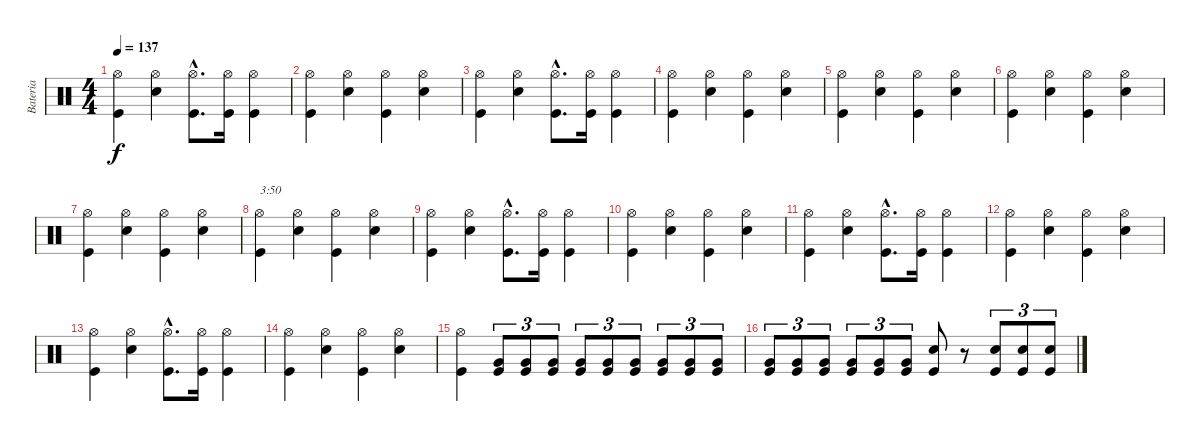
\track ("Bateria" "Bateria") {instrument percussion}
\staff {score}
\articulation defaults
\ts (4 4)
\tempo 137
\clef neutral
\ks c
("Kick (hit)" "Hi-Hat (open)").4{dy f} ("Snare (hit) 2" "Hi-Hat (open)").4 ("Kick (hit)"{hac} "Hi-Hat (open)"{hac}).8{d} ("Kick (hit)" "Hi-Hat (open)").16 ("Kick (hit)" "Hi-Hat (open)").4 |
("Kick (hit)" "Hi-Hat (open)").4 ("Snare (hit) 2" "Hi-Hat (open)").4 ("Kick (hit)" "Hi-Hat (open)").4 ("Snare (hit) 2" "Hi-Hat (open)").4 |
("Kick (hit)" "Hi-Hat (open)").4 ("Snare (hit) 2" "Hi-Hat (open)").4 ("Kick (hit)"{hac} "Hi-Hat (open)"{hac}).8{d} ("Kick (hit)" "Hi-Hat (open)").16 ("Kick (hit)" "Hi-Hat (open)").4 |
("Kick (hit)" "Hi-Hat (open)").4 ("Snare (hit) 2" "Hi-Hat (open)").4 ("Kick (hit)" "Hi-Hat (open)").4 ("Snare (hit) 2" "Hi-Hat (open)").4 |
("Kick (hit)" "Hi-Hat (open)").4 ("Snare (hit) 2" "Hi-Hat (open)").4 ("Kick (hit)" "Hi-Hat (open)").4 ("Snare (hit) 2" "Hi-Hat (open)").4 |
("Kick (hit)" "Hi-Hat (open)").4 ("Snare (hit) 2" "Hi-Hat (open)").4 ("Kick (hit)" "Hi-Hat (open)").4 ("Snare (hit) 2" "Hi-Hat (open)").4 |
("Kick (hit)" "Hi-Hat (open)").4 ("Snare (hit) 2" "Hi-Hat (open)").4 ("Kick (hit)" "Hi-Hat (open)").4 ("Snare (hit) 2" "Hi-Hat (open)").4 |
("Kick (hit)" "Hi-Hat (open)").4{txt "3:50"} ("Snare (hit) 2" "Hi-Hat (open)").4 ("Kick (hit)" "Hi-Hat (open)").4 ("Snare (hit) 2" "Hi-Hat (open)").4 |
("Kick (hit)" "Hi-Hat (open)").4 ("Snare (hit) 2" "Hi-Hat (open)").4 ("Kick (hit)"{hac} "Hi-Hat (open)"{hac}).8{d} ("Kick (hit)" "Hi-Hat (open)").16 ("Kick (hit)" "Hi-Hat (open)").4 |
("Kick (hit)" "Hi-Hat (open)").4 ("Snare (hit) 2" "Hi-Hat (open)").4 ("Kick (hit)" "Hi-Hat (open)").4 ("Snare (hit) 2" "Hi-Hat (open)").4 |
("Kick (hit)" "Hi-Hat (open)").4 ("Snare (hit) 2" "Hi-Hat (open)").4 ("Kick (hit)"{hac} "Hi-Hat (open)"{hac}).8{d} ("Kick (hit)" "Hi-Hat (open)").16 ("Kick (hit)" "Hi-Hat (open)").4 |
("Kick (hit)" "Hi-Hat (open)").4 ("Snare (hit) 2" "Hi-Hat (open)").4 ("Kick (hit)" "Hi-Hat (open)").4 ("Snare (hit) 2" "Hi-Hat (open)").4 |
("Kick (hit)" "Hi-Hat (open)").4 ("Snare (hit) 2" "Hi-Hat (open)").4 ("Kick (hit)"{hac} "Hi-Hat (open)"{hac}).8{d} ("Kick (hit)" "Hi-Hat (open)").16 ("Kick (hit)" "Hi-Hat (open)").4 |
("Kick (hit)" "Hi-Hat (open)").4 ("Snare (hit) 2" "Hi-Hat (open)").4 ("Kick (hit)" "Hi-Hat (open)").4 ("Snare (hit) 2" "Hi-Hat (open)").4 |
("Kick (hit)" "Hi-Hat (open)").4 ("Kick (hit)" "Very Low Tom (hit)").8{tu (3 2)} ("Kick (hit)" "Very Low Tom (hit)").8{tu (3 2)} ("Kick (hit)" "Very Low Tom (hit)").8{tu (3 2)} ("Kick (hit)" "Very Low Tom (hit)").8{tu (3 2)} ("Kick (hit)" "Very Low Tom (hit)").8{tu (3 2)} ("Kick (hit)" "Very Low Tom (hit)").8{tu (3 2)} ("Kick (hit)" "Very Low Tom (hit)").8{tu (3 2)} ("Kick (hit)" "Very Low Tom (hit)").8{tu (3 2)} ("Kick (hit)" "Very Low Tom (hit)").8{tu (3 2)} |
("Kick (hit)" "Very Low Tom (hit)").8{tu (3 2)} ("Kick (hit)" "Very Low Tom (hit)").8{tu (3 2)} ("Kick (hit)" "Very Low Tom (hit)").8{tu (3 2)} ("Kick (hit)" "Very Low Tom (hit)").8{tu (3 2)} ("Kick (hit)" "Very Low Tom (hit)").8{tu (3 2)} ("Kick (hit)" "Very Low Tom (hit)").8{tu (3 2)} ("Kick (hit)" "Snare (hit) 2").8 r.8 ("Kick (hit)" "Snare (hit) 2").8{tu (3 2)} ("Kick (hit)" "Snare (hit) 2").8{tu (3 2)} ("Kick (hit)" "Snare (hit) 2").8{tu (3 2)}
